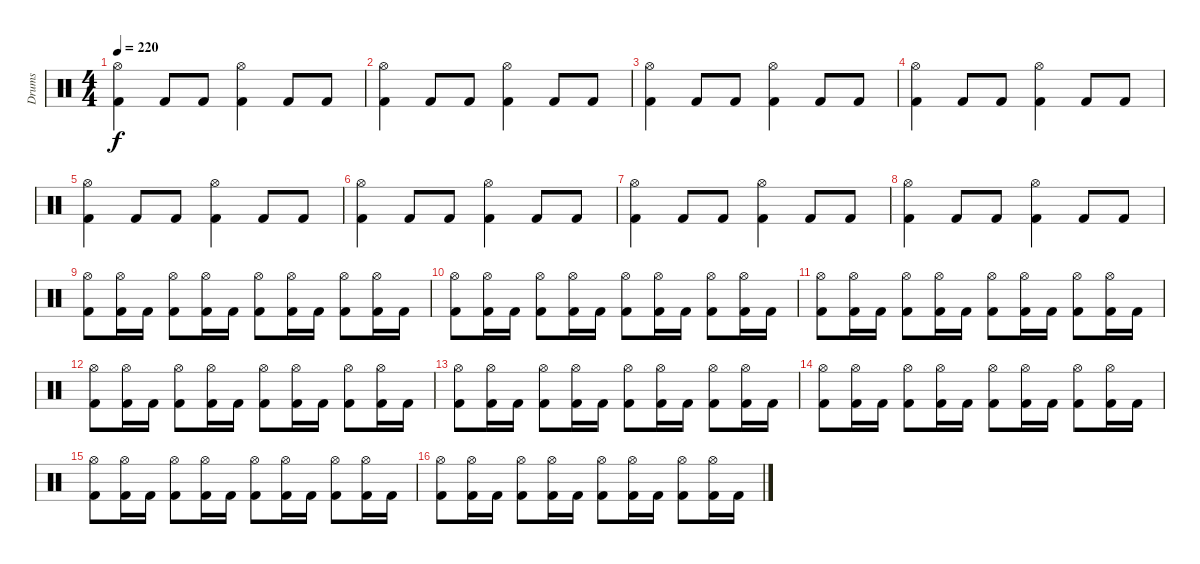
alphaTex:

\track ("Drums" "Drums") {instrument percussion}
\staff {score}
\articulation defaults
\ts (4 4)
\tempo 220
\clef neutral
\ks c
("Hi-Hat (open)" "Kick (hit) 2").4{dy f} "Kick (hit) 2".8 "Kick (hit) 2".8 ("Hi-Hat (open)" "Kick (hit) 2").4 "Kick (hit) 2".8 "Kick (hit) 2".8 |
("Hi-Hat (open)" "Kick (hit) 2").4 "Kick (hit) 2".8 "Kick (hit) 2".8 ("Hi-Hat (open)" "Kick (hit) 2").4 "Kick (hit) 2".8 "Kick (hit) 2".8 |
("Hi-Hat (open)" "Kick (hit) 2").4 "Kick (hit) 2".8 "Kick (hit) 2".8 ("Hi-Hat (open)" "Kick (hit) 2").4 "Kick (hit) 2".8 "Kick (hit) 2".8 |
("Hi-Hat (open)" "Kick (hit) 2").4 "Kick (hit) 2".8 "Kick (hit) 2".8 ("Hi-Hat (open)" "Kick (hit) 2").4 "Kick (hit) 2".8 "Kick (hit) 2".8 |
("Hi-Hat (open)" "Kick (hit) 2").4 "Kick (hit) 2".8 "Kick (hit) 2".8 ("Hi-Hat (open)" "Kick (hit) 2").4 "Kick (hit) 2".8 "Kick (hit) 2".8 |
("Hi-Hat (open)" "Kick (hit) 2").4 "Kick (hit) 2".8 "Kick (hit) 2".8 ("Hi-Hat (open)" "Kick (hit) 2").4 "Kick (hit) 2".8 "Kick (hit) 2".8 |
("Hi-Hat (open)" "Kick (hit) 2").4 "Kick (hit) 2".8 "Kick (hit) 2".8 ("Hi-Hat (open)" "Kick (hit) 2").4 "Kick (hit) 2".8 "Kick (hit) 2".8 |
("Hi-Hat (open)" "Kick (hit) 2").4 "Kick (hit) 2".8 "Kick (hit) 2".8 ("Hi-Hat (open)" "Kick (hit) 2").4 "Kick (hit) 2".8 "Kick (hit) 2".8 |
("Hi-Hat (open)" "Kick (hit) 2").8 ("Hi-Hat (open)" "Kick (hit) 2").16 "Kick (hit) 2".16 ("Hi-Hat (open)" "Kick (hit) 2").8 ("Hi-Hat (open)" "Kick (hit) 2").16 "Kick (hit) 2".16 ("Hi-Hat (open)" "Kick (hit) 2").8 ("Hi-Hat (open)" "Kick (hit) 2").16 "Kick (hit) 2".16 ("Hi-Hat (open)" "Kick (hit) 2").8 ("Hi-Hat (open)" "Kick (hit) 2").16 "Kick (hit) 2".16 |
("Hi-Hat (open)" "Kick (hit) 2").8 ("Hi-Hat (open)" "Kick (hit) 2").16 "Kick (hit) 2".16 ("Hi-Hat (open)" "Kick (hit) 2").8 ("Hi-Hat (open)" "Kick (hit) 2").16 "Kick (hit) 2".16 ("Hi-Hat (open)" "Kick (hit) 2").8 ("Hi-Hat (open)" "Kick (hit) 2").16 "Kick (hit) 2".16 ("Hi-Hat (open)" "Kick (hit) 2").8 ("Hi-Hat (open)" "Kick (hit) 2").16 "Kick (hit) 2".16 |
("Hi-Hat (open)" "Kick (hit) 2").8 ("Hi-Hat (open)" "Kick (hit) 2").16 "Kick (hit) 2".16 ("Hi-Hat (open)" "Kick (hit) 2").8 ("Hi-Hat (open)" "Kick (hit) 2").16 "Kick (hit) 2".16 ("Hi-Hat (open)" "Kick (hit) 2").8 ("Hi-Hat (open)" "Kick (hit) 2").16 "Kick (hit) 2".16 ("Hi-Hat (open)" "Kick (hit) 2").8 ("Hi-Hat (open)" "Kick (hit) 2").16 "Kick (hit) 2".16 |
("Hi-Hat (open)" "Kick (hit) 2").8 ("Hi-Hat (open)" "Kick (hit) 2").16 "Kick (hit) 2".16 ("Hi-Hat (open)" "Kick (hit) 2").8 ("Hi-Hat (open)" "Kick (hit) 2").16 "Kick (hit) 2".16 ("Hi-Hat (open)" "Kick (hit) 2").8 ("Hi-Hat (open)" "Kick (hit) 2").16 "Kick (hit) 2".16 ("Hi-Hat (open)" "Kick (hit) 2").8 ("Hi-Hat (open)" "Kick (hit) 2").16 "Kick (hit) 2".16 |
("Hi-Hat (open)" "Kick (hit) 2").8 ("Hi-Hat (open)" "Kick (hit) 2").16 "Kick (hit) 2".16 ("Hi-Hat (open)" "Kick (hit) 2").8 ("Hi-Hat (open)" "Kick (hit) 2").16 "Kick (hit) 2".16 ("Hi-Hat (open)" "Kick (hit) 2").8 ("Hi-Hat (open)" "Kick (hit) 2").16 "Kick (hit) 2".16 ("Hi-Hat (open)" "Kick (hit) 2").8 ("Hi-Hat (open)" "Kick (hit) 2").16 "Kick (hit) 2".16 |
("Hi-Hat (open)" "Kick (hit) 2").8 ("Hi-Hat (open)" "Kick (hit) 2").16 "Kick (hit) 2".16 ("Hi-Hat (open)" "Kick (hit) 2").8 ("Hi-Hat (open)" "Kick (hit) 2").16 "Kick (hit) 2".16 ("Hi-Hat (open)" "Kick (hit) 2").8 ("Hi-Hat (open)" "Kick (hit) 2").16 "Kick (hit) 2".16 ("Hi-Hat (open)" "Kick (hit) 2").8 ("Hi-Hat (open)" "Kick (hit) 2").16 "Kick (hit) 2".16 |
("Hi-Hat (open)" "Kick (hit) 2").8 ("Hi-Hat (open)" "Kick (hit) 2").16 "Kick (hit) 2".16 ("Hi-Hat (open)" "Kick (hit) 2").8 ("Hi-Hat (open)" "Kick (hit) 2").16 "Kick (hit) 2".16 ("Hi-Hat (open)" "Kick (hit) 2").8 ("Hi-Hat (open)" "Kick (hit) 2").16 "Kick (hit) 2".16 ("Hi-Hat (open)" "Kick (hit) 2").8 ("Hi-Hat (open)" "Kick (hit) 2").16 "Kick (hit) 2".16 |
("Hi-Hat (open)" "Kick (hit) 2").8 ("Hi-Hat (open)" "Kick (hit) 2").16 "Kick (hit) 2".16 ("Hi-Hat (open)" "Kick (hit) 2").8 ("Hi-Hat (open)" "Kick (hit) 2").16 "Kick (hit) 2".16 ("Hi-Hat (open)" "Kick (hit) 2").8 ("Hi-Hat (open)" "Kick (hit) 2").16 "Kick (hit) 2".16 ("Hi-Hat (open)" "Kick (hit) 2").8 ("Hi-Hat (open)" "Kick (hit) 2").16 "Kick (hit) 2".16
